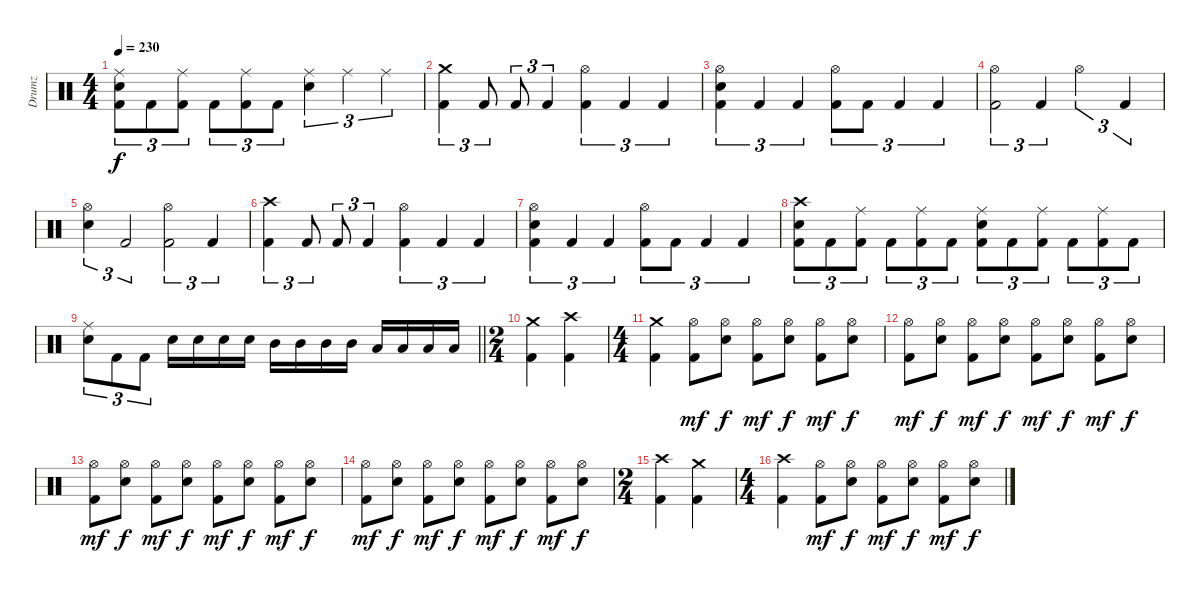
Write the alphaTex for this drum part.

\track ("Drumz" "Drumz") {instrument percussion}
\staff {score}
\articulation defaults
\ts (4 4)
\tempo 230
\clef neutral
\ks c
("Ride (middle)" "Electric Snare (hit)" "Kick (hit) 2").8{tu (3 2) dy f} "Kick (hit) 2".8{tu (3 2)} ("Ride (middle)" "Kick (hit) 2").8{tu (3 2)} "Kick (hit) 2".8{tu (3 2)} ("Ride (middle)" "Kick (hit) 2").8{tu (3 2)} "Kick (hit) 2".8{tu (3 2)} ("Ride (middle)" "Electric Snare (hit)").4{tu (3 2)} "Ride (middle)".4{tu (3 2)} "Ride (middle)".4{tu (3 2)} |
("Crash medium (hit)" "Kick (hit) 2").4{tu (3 2)} "Kick (hit) 2".8{tu (3 2)} "Kick (hit) 2".8{tu (3 2)} "Kick (hit) 2".4{tu (3 2)} ("Hi-Hat (open)" "Kick (hit) 2").4{tu (3 2)} "Kick (hit) 2".4{tu (3 2)} "Kick (hit) 2".4{tu (3 2)} |
("Hi-Hat (open)" "Electric Snare (hit)" "Kick (hit) 2").4{tu (3 2)} "Kick (hit) 2".4{tu (3 2)} "Kick (hit) 2".4{tu (3 2)} ("Hi-Hat (open)" "Kick (hit) 2").8{tu (3 2)} "Kick (hit) 2".8{tu (3 2)} "Kick (hit) 2".4{tu (3 2)} "Kick (hit) 2".4{tu (3 2)} |
("Hi-Hat (open)" "Kick (hit) 2").2{tu (3 2)} "Kick (hit) 2".4{tu (3 2)} "Hi-Hat (open)".2{tu (3 2)} "Kick (hit) 2".4{tu (3 2)} |
("Hi-Hat (open)" "Electric Snare (hit)").4{tu (3 2)} "Kick (hit) 2".2{tu (3 2)} ("Hi-Hat (open)" "Kick (hit) 2").2{tu (3 2)} "Kick (hit) 2".4{tu (3 2)} |
("Crash high (hit)" "Kick (hit) 2").4{tu (3 2)} "Kick (hit) 2".8{tu (3 2)} "Kick (hit) 2".8{tu (3 2)} "Kick (hit) 2".4{tu (3 2)} ("Hi-Hat (open)" "Kick (hit) 2").4{tu (3 2)} "Kick (hit) 2".4{tu (3 2)} "Kick (hit) 2".4{tu (3 2)} |
("Hi-Hat (open)" "Electric Snare (hit)" "Kick (hit) 2").4{tu (3 2)} "Kick (hit) 2".4{tu (3 2)} "Kick (hit) 2".4{tu (3 2)} ("Hi-Hat (open)" "Kick (hit) 2").8{tu (3 2)} "Kick (hit) 2".8{tu (3 2)} "Kick (hit) 2".4{tu (3 2)} "Kick (hit) 2".4{tu (3 2)} |
("Crash high (hit)" "Electric Snare (hit)" "Kick (hit) 2").8{tu (3 2)} "Kick (hit) 2".8{tu (3 2)} ("Ride (middle)" "Kick (hit) 2").8{tu (3 2)} "Kick (hit) 2".8{tu (3 2)} ("Ride (middle)" "Kick (hit) 2").8{tu (3 2)} "Kick (hit) 2".8{tu (3 2)} ("Ride (middle)" "Electric Snare (hit)" "Kick (hit) 2").8{tu (3 2)} "Kick (hit) 2".8{tu (3 2)} ("Ride (middle)" "Kick (hit) 2").8{tu (3 2)} "Kick (hit) 2".8{tu (3 2)} ("Ride (middle)" "Kick (hit) 2").8{tu (3 2)} "Kick (hit) 2".8{tu (3 2)} |
\barLineRight lightlight
("Ride (middle)" "Electric Snare (hit)").8{tu (3 2)} "Kick (hit) 2".8{tu (3 2)} "Kick (hit) 2".8{tu (3 2)} "Electric Snare (hit)".16 "Electric Snare (hit)".16 "Electric Snare (hit)".16 "Electric Snare (hit)".16 "Mid Tom (hit)".16 "Mid Tom (hit)".16 "Mid Tom (hit)".16 "Mid Tom (hit)".16 "Low Tom (hit)".16 "Low Tom (hit)".16 "Low Tom (hit)".16 "Low Tom (hit)".16 |
\ts (2 4)
\section ("" "")
("Crash medium (hit)" "Kick (hit) 2").4 ("Crash high (hit)" "Kick (hit) 2").4 |
\ts (4 4)
("Crash medium (hit)" "Kick (hit) 2").4 ("Hi-Hat (open)" "Kick (hit) 2").8{dy mf} ("Hi-Hat (open)" "Electric Snare (hit)").8{dy f} ("Hi-Hat (open)" "Kick (hit) 2").8{dy mf} ("Hi-Hat (open)" "Electric Snare (hit)").8{dy f} ("Hi-Hat (open)" "Kick (hit) 2").8{dy mf} ("Hi-Hat (open)" "Electric Snare (hit)").8{dy f} |
("Hi-Hat (open)" "Kick (hit) 2").8{dy mf} ("Hi-Hat (open)" "Electric Snare (hit)").8{dy f} ("Hi-Hat (open)" "Kick (hit) 2").8{dy mf} ("Hi-Hat (open)" "Electric Snare (hit)").8{dy f} ("Hi-Hat (open)" "Kick (hit) 2").8{dy mf} ("Hi-Hat (open)" "Electric Snare (hit)").8{dy f} ("Hi-Hat (open)" "Kick (hit) 2").8{dy mf} ("Hi-Hat (open)" "Electric Snare (hit)").8{dy f} |
("Hi-Hat (open)" "Kick (hit) 2").8{dy mf} ("Hi-Hat (open)" "Electric Snare (hit)").8{dy f} ("Hi-Hat (open)" "Kick (hit) 2").8{dy mf} ("Hi-Hat (open)" "Electric Snare (hit)").8{dy f} ("Hi-Hat (open)" "Kick (hit) 2").8{dy mf} ("Hi-Hat (open)" "Electric Snare (hit)").8{dy f} ("Hi-Hat (open)" "Kick (hit) 2").8{dy mf} ("Hi-Hat (open)" "Electric Snare (hit)").8{dy f} |
("Hi-Hat (open)" "Kick (hit) 2").8{dy mf} ("Hi-Hat (open)" "Electric Snare (hit)").8{dy f} ("Hi-Hat (open)" "Kick (hit) 2").8{dy mf} ("Hi-Hat (open)" "Electric Snare (hit)").8{dy f} ("Hi-Hat (open)" "Kick (hit) 2").8{dy mf} ("Hi-Hat (open)" "Electric Snare (hit)").8{dy f} ("Hi-Hat (open)" "Kick (hit) 2").8{dy mf} ("Hi-Hat (open)" "Electric Snare (hit)").8{dy f} |
\ts (2 4)
("Crash high (hit)" "Kick (hit) 2").4 ("Crash medium (hit)" "Kick (hit) 2").4 |
\ts (4 4)
("Crash high (hit)" "Kick (hit) 2").4 ("Hi-Hat (open)" "Kick (hit) 2").8{dy mf} ("Hi-Hat (open)" "Electric Snare (hit)").8{dy f} ("Hi-Hat (open)" "Kick (hit) 2").8{dy mf} ("Hi-Hat (open)" "Electric Snare (hit)").8{dy f} ("Hi-Hat (open)" "Kick (hit) 2").8{dy mf} ("Hi-Hat (open)" "Electric Snare (hit)").8{dy f}
